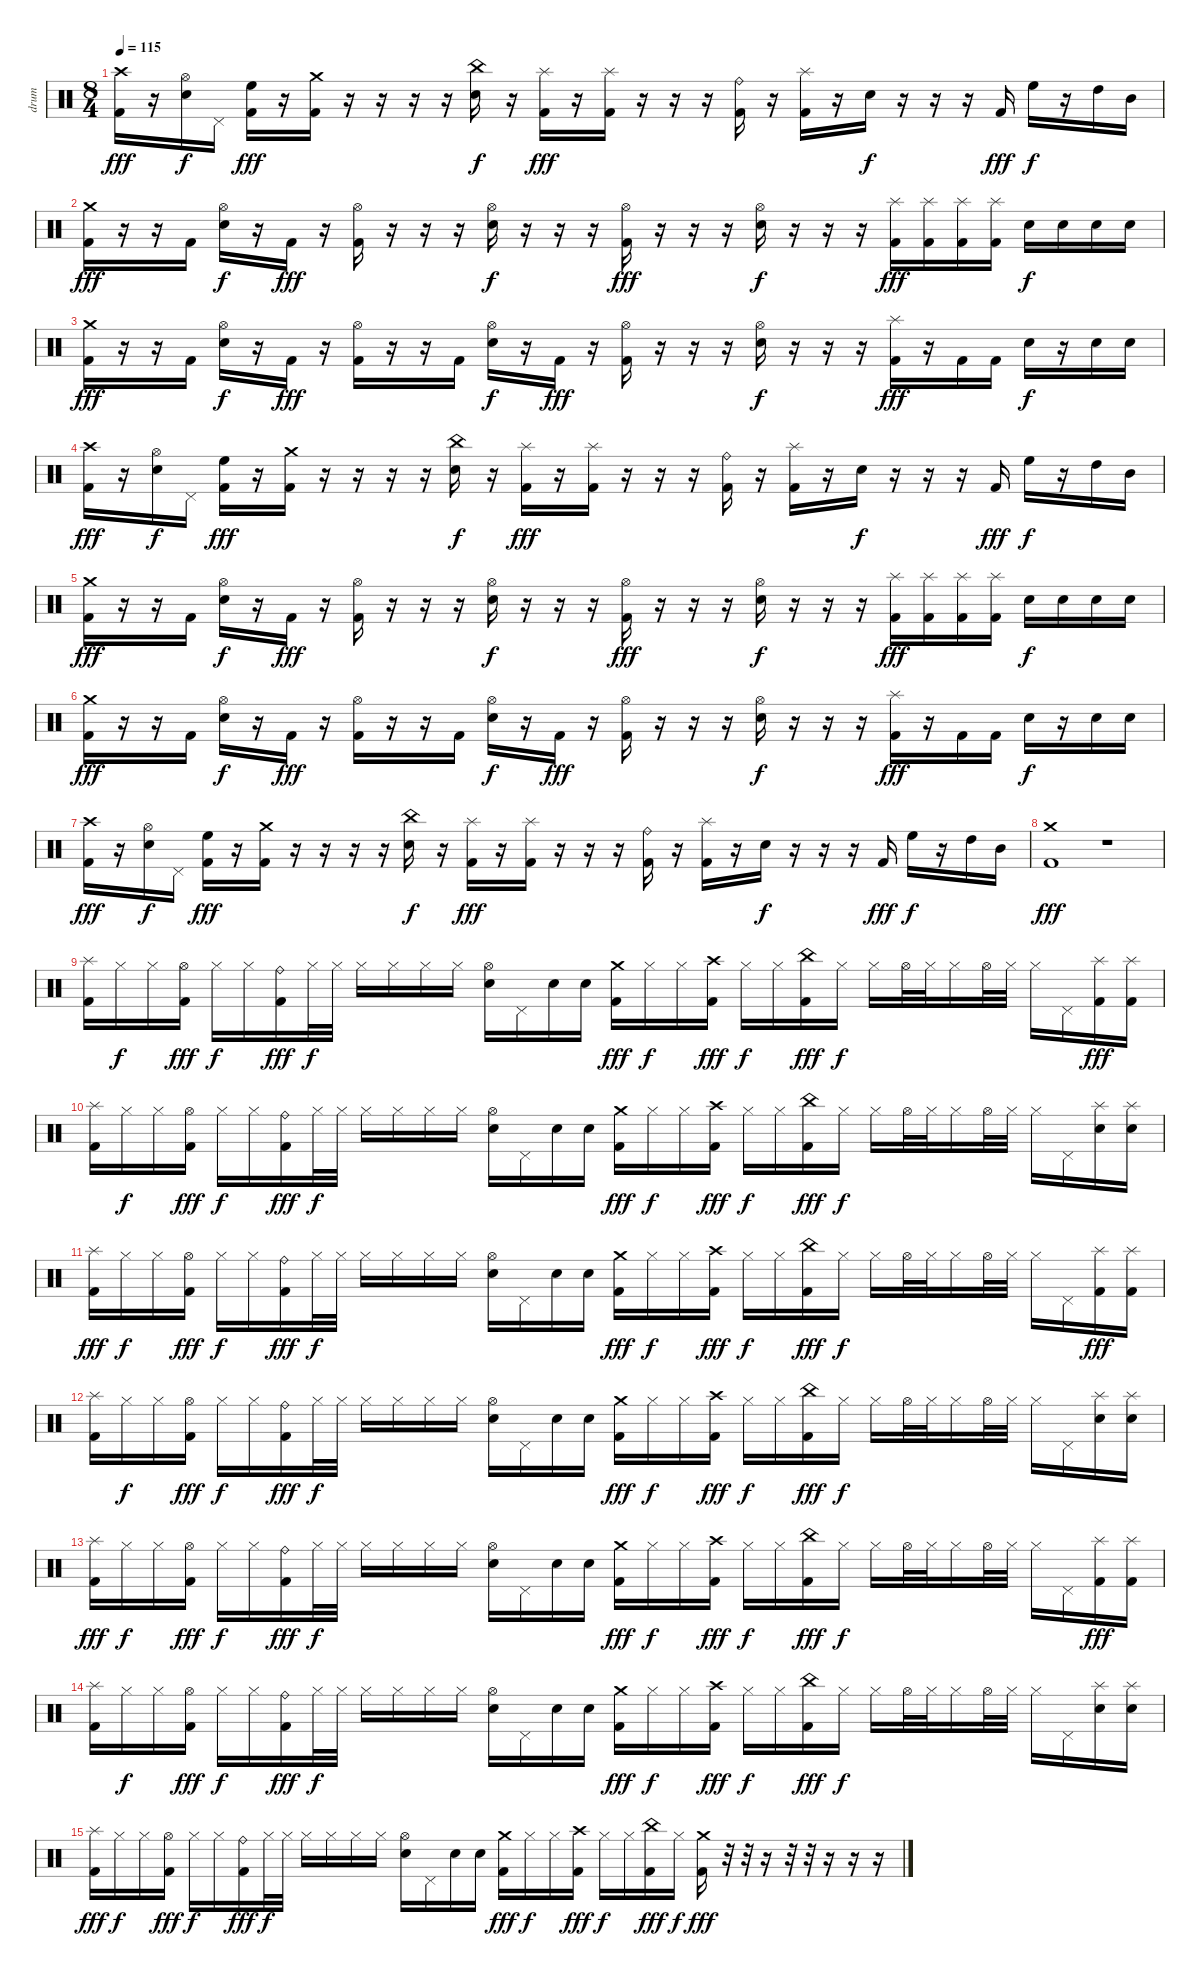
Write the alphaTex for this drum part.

\track ("drum" "drum") {instrument percussion}
\staff {score}
\articulation defaults
\ts (8 4)
\tempo 115
\clef neutral
\ks c
("Crash high (hit)" "Kick (hit) 2").16{dy fff} r.16 ("Hi-Hat (open)" "Electric Snare (hit)").16{dy f} "Pedal Hi-Hat (hit)".16 ("High Floor Tom (hit)" "Kick (hit) 2").16{dy fff} r.16 ("Crash medium (hit)" "Kick (hit) 2").16 r.16 r.16 r.16 r.16 ("China (hit)" "Electric Snare (hit)").16{dy f} r.16 ("Splash (hit)" "Kick (hit) 2").16{dy fff} r.16 ("Splash (hit)" "Kick (hit) 2").16 r.16 r.16 r.16 ("Ride (bell)" "Kick (hit) 2").16 r.16 ("Splash (hit)" "Kick (hit) 2").16 r.16 "Electric Snare (hit)".16{dy f} r.16 r.16 r.16 "Kick (hit) 2".16{dy fff} "High Floor Tom (hit)".16{dy f} r.16 "High Tom (hit)".16 "Mid Tom (hit)".16 |
("Crash medium (hit)" "Kick (hit) 2").16{dy fff} r.16 r.16 "Kick (hit) 2".16 ("Hi-Hat (open)" "Electric Snare (hit)").16{dy f} r.16 "Kick (hit) 2".16{dy fff} r.16 ("Hi-Hat (open)" "Kick (hit) 2").16 r.16 r.16 r.16 ("Hi-Hat (open)" "Electric Snare (hit)").16{dy f} r.16 r.16 r.16 ("Hi-Hat (open)" "Kick (hit) 2").16{dy fff} r.16 r.16 r.16 ("Hi-Hat (open)" "Electric Snare (hit)").16{dy f} r.16 r.16 r.16 ("Splash (hit)" "Kick (hit) 2").16{dy fff} ("Splash (hit)" "Kick (hit) 2").16 ("Splash (hit)" "Kick (hit) 2").16 ("Splash (hit)" "Kick (hit) 2").16 "Electric Snare (hit)".16{dy f} "Electric Snare (hit)".16 "Electric Snare (hit)".16 "Electric Snare (hit)".16 |
("Crash medium (hit)" "Kick (hit) 2").16{dy fff} r.16 r.16 "Kick (hit) 2".16 ("Hi-Hat (open)" "Electric Snare (hit)").16{dy f} r.16 "Kick (hit) 2".16{dy fff} r.16 ("Hi-Hat (open)" "Kick (hit) 2").16 r.16 r.16 "Kick (hit) 2".16 ("Hi-Hat (open)" "Electric Snare (hit)").16{dy f} r.16 "Kick (hit) 2".16{dy fff} r.16 ("Hi-Hat (open)" "Kick (hit) 2").16 r.16 r.16 r.16 ("Hi-Hat (open)" "Electric Snare (hit)").16{dy f} r.16 r.16 r.16 ("Splash (hit)" "Kick (hit) 2").16{dy fff} r.16 "Kick (hit) 2".16 "Kick (hit) 2".16 "Electric Snare (hit)".16{dy f} r.16 "Electric Snare (hit)".16 "Electric Snare (hit)".16 |
("Crash high (hit)" "Kick (hit) 2").16{dy fff} r.16 ("Hi-Hat (open)" "Electric Snare (hit)").16{dy f} "Pedal Hi-Hat (hit)".16 ("High Floor Tom (hit)" "Kick (hit) 2").16{dy fff} r.16 ("Crash medium (hit)" "Kick (hit) 2").16 r.16 r.16 r.16 r.16 ("China (hit)" "Electric Snare (hit)").16{dy f} r.16 ("Splash (hit)" "Kick (hit) 2").16{dy fff} r.16 ("Splash (hit)" "Kick (hit) 2").16 r.16 r.16 r.16 ("Ride (bell)" "Kick (hit) 2").16 r.16 ("Splash (hit)" "Kick (hit) 2").16 r.16 "Electric Snare (hit)".16{dy f} r.16 r.16 r.16 "Kick (hit) 2".16{dy fff} "High Floor Tom (hit)".16{dy f} r.16 "High Tom (hit)".16 "Mid Tom (hit)".16 |
("Crash medium (hit)" "Kick (hit) 2").16{dy fff} r.16 r.16 "Kick (hit) 2".16 ("Hi-Hat (open)" "Electric Snare (hit)").16{dy f} r.16 "Kick (hit) 2".16{dy fff} r.16 ("Hi-Hat (open)" "Kick (hit) 2").16 r.16 r.16 r.16 ("Hi-Hat (open)" "Electric Snare (hit)").16{dy f} r.16 r.16 r.16 ("Hi-Hat (open)" "Kick (hit) 2").16{dy fff} r.16 r.16 r.16 ("Hi-Hat (open)" "Electric Snare (hit)").16{dy f} r.16 r.16 r.16 ("Splash (hit)" "Kick (hit) 2").16{dy fff} ("Splash (hit)" "Kick (hit) 2").16 ("Splash (hit)" "Kick (hit) 2").16 ("Splash (hit)" "Kick (hit) 2").16 "Electric Snare (hit)".16{dy f} "Electric Snare (hit)".16 "Electric Snare (hit)".16 "Electric Snare (hit)".16 |
("Crash medium (hit)" "Kick (hit) 2").16{dy fff} r.16 r.16 "Kick (hit) 2".16 ("Hi-Hat (open)" "Electric Snare (hit)").16{dy f} r.16 "Kick (hit) 2".16{dy fff} r.16 ("Hi-Hat (open)" "Kick (hit) 2").16 r.16 r.16 "Kick (hit) 2".16 ("Hi-Hat (open)" "Electric Snare (hit)").16{dy f} r.16 "Kick (hit) 2".16{dy fff} r.16 ("Hi-Hat (open)" "Kick (hit) 2").16 r.16 r.16 r.16 ("Hi-Hat (open)" "Electric Snare (hit)").16{dy f} r.16 r.16 r.16 ("Splash (hit)" "Kick (hit) 2").16{dy fff} r.16 "Kick (hit) 2".16 "Kick (hit) 2".16 "Electric Snare (hit)".16{dy f} r.16 "Electric Snare (hit)".16 "Electric Snare (hit)".16 |
("Crash high (hit)" "Kick (hit) 2").16{dy fff} r.16 ("Hi-Hat (open)" "Electric Snare (hit)").16{dy f} "Pedal Hi-Hat (hit)".16 ("High Floor Tom (hit)" "Kick (hit) 2").16{dy fff} r.16 ("Crash medium (hit)" "Kick (hit) 2").16 r.16 r.16 r.16 r.16 ("China (hit)" "Electric Snare (hit)").16{dy f} r.16 ("Splash (hit)" "Kick (hit) 2").16{dy fff} r.16 ("Splash (hit)" "Kick (hit) 2").16 r.16 r.16 r.16 ("Ride (bell)" "Kick (hit) 2").16 r.16 ("Splash (hit)" "Kick (hit) 2").16 r.16 "Electric Snare (hit)".16{dy f} r.16 r.16 r.16 "Kick (hit) 2".16{dy fff} "High Floor Tom (hit)".16{dy f} r.16 "High Tom (hit)".16 "Mid Tom (hit)".16 |
("Crash medium (hit)" "Kick (hit) 2").1{dy fff} r.1 |
("Splash (hit)" "Kick (hit) 2").16 "Hi-Hat (closed)".16{dy f} "Hi-Hat (closed)".16 ("Hi-Hat (open)" "Kick (hit) 2").16{dy fff} "Hi-Hat (closed)".16{dy f} "Hi-Hat (closed)".16 ("Ride (bell)" "Kick (hit) 2").16{dy fff} "Hi-Hat (closed)".32{dy f} "Hi-Hat (closed)".32 "Hi-Hat (closed)".16 "Hi-Hat (closed)".16 "Hi-Hat (closed)".16 "Hi-Hat (closed)".16 ("Hi-Hat (open)" "Electric Snare (hit)").16 "Pedal Hi-Hat (hit)".16 "Electric Snare (hit)".16 "Electric Snare (hit)".16 ("Crash medium (hit)" "Kick (hit) 2").16{dy fff} "Hi-Hat (closed)".16{dy f} "Hi-Hat (closed)".16 ("Crash high (hit)" "Kick (hit) 2").16{dy fff} "Hi-Hat (closed)".16{dy f} "Hi-Hat (closed)".16 ("China (hit)" "Kick (hit) 2").16{dy fff} "Hi-Hat (closed)".16{dy f} "Hi-Hat (closed)".16 "Hi-Hat (open)".32 "Hi-Hat (closed)".32 "Hi-Hat (closed)".16 "Hi-Hat (open)".32 "Hi-Hat (closed)".32 "Hi-Hat (closed)".16 "Pedal Hi-Hat (hit)".16 ("Splash (hit)" "Kick (hit) 2").16{dy fff} ("Splash (hit)" "Kick (hit) 2").16 |
("Splash (hit)" "Kick (hit) 2").16 "Hi-Hat (closed)".16{dy f} "Hi-Hat (closed)".16 ("Hi-Hat (open)" "Kick (hit) 2").16{dy fff} "Hi-Hat (closed)".16{dy f} "Hi-Hat (closed)".16 ("Ride (bell)" "Kick (hit) 2").16{dy fff} "Hi-Hat (closed)".32{dy f} "Hi-Hat (closed)".32 "Hi-Hat (closed)".16 "Hi-Hat (closed)".16 "Hi-Hat (closed)".16 "Hi-Hat (closed)".16 ("Hi-Hat (open)" "Electric Snare (hit)").16 "Pedal Hi-Hat (hit)".16 "Electric Snare (hit)".16 "Electric Snare (hit)".16 ("Crash medium (hit)" "Kick (hit) 2").16{dy fff} "Hi-Hat (closed)".16{dy f} "Hi-Hat (closed)".16 ("Crash high (hit)" "Kick (hit) 2").16{dy fff} "Hi-Hat (closed)".16{dy f} "Hi-Hat (closed)".16 ("China (hit)" "Kick (hit) 2").16{dy fff} "Hi-Hat (closed)".16{dy f} "Hi-Hat (closed)".16 "Hi-Hat (open)".32 "Hi-Hat (closed)".32 "Hi-Hat (closed)".16 "Hi-Hat (open)".32 "Hi-Hat (closed)".32 "Hi-Hat (closed)".16 "Pedal Hi-Hat (hit)".16 ("Splash (hit)" "Electric Snare (hit)").16 ("Splash (hit)" "Electric Snare (hit)").16 |
("Splash (hit)" "Kick (hit) 2").16{dy fff} "Hi-Hat (closed)".16{dy f} "Hi-Hat (closed)".16 ("Hi-Hat (open)" "Kick (hit) 2").16{dy fff} "Hi-Hat (closed)".16{dy f} "Hi-Hat (closed)".16 ("Ride (bell)" "Kick (hit) 2").16{dy fff} "Hi-Hat (closed)".32{dy f} "Hi-Hat (closed)".32 "Hi-Hat (closed)".16 "Hi-Hat (closed)".16 "Hi-Hat (closed)".16 "Hi-Hat (closed)".16 ("Hi-Hat (open)" "Electric Snare (hit)").16 "Pedal Hi-Hat (hit)".16 "Electric Snare (hit)".16 "Electric Snare (hit)".16 ("Crash medium (hit)" "Kick (hit) 2").16{dy fff} "Hi-Hat (closed)".16{dy f} "Hi-Hat (closed)".16 ("Crash high (hit)" "Kick (hit) 2").16{dy fff} "Hi-Hat (closed)".16{dy f} "Hi-Hat (closed)".16 ("China (hit)" "Kick (hit) 2").16{dy fff} "Hi-Hat (closed)".16{dy f} "Hi-Hat (closed)".16 "Hi-Hat (open)".32 "Hi-Hat (closed)".32 "Hi-Hat (closed)".16 "Hi-Hat (open)".32 "Hi-Hat (closed)".32 "Hi-Hat (closed)".16 "Pedal Hi-Hat (hit)".16 ("Splash (hit)" "Kick (hit) 2").16{dy fff} ("Splash (hit)" "Kick (hit) 2").16 |
("Splash (hit)" "Kick (hit) 2").16 "Hi-Hat (closed)".16{dy f} "Hi-Hat (closed)".16 ("Hi-Hat (open)" "Kick (hit) 2").16{dy fff} "Hi-Hat (closed)".16{dy f} "Hi-Hat (closed)".16 ("Ride (bell)" "Kick (hit) 2").16{dy fff} "Hi-Hat (closed)".32{dy f} "Hi-Hat (closed)".32 "Hi-Hat (closed)".16 "Hi-Hat (closed)".16 "Hi-Hat (closed)".16 "Hi-Hat (closed)".16 ("Hi-Hat (open)" "Electric Snare (hit)").16 "Pedal Hi-Hat (hit)".16 "Electric Snare (hit)".16 "Electric Snare (hit)".16 ("Crash medium (hit)" "Kick (hit) 2").16{dy fff} "Hi-Hat (closed)".16{dy f} "Hi-Hat (closed)".16 ("Crash high (hit)" "Kick (hit) 2").16{dy fff} "Hi-Hat (closed)".16{dy f} "Hi-Hat (closed)".16 ("China (hit)" "Kick (hit) 2").16{dy fff} "Hi-Hat (closed)".16{dy f} "Hi-Hat (closed)".16 "Hi-Hat (open)".32 "Hi-Hat (closed)".32 "Hi-Hat (closed)".16 "Hi-Hat (open)".32 "Hi-Hat (closed)".32 "Hi-Hat (closed)".16 "Pedal Hi-Hat (hit)".16 ("Splash (hit)" "Electric Snare (hit)").16 ("Splash (hit)" "Electric Snare (hit)").16 |
("Splash (hit)" "Kick (hit) 2").16{dy fff} "Hi-Hat (closed)".16{dy f} "Hi-Hat (closed)".16 ("Hi-Hat (open)" "Kick (hit) 2").16{dy fff} "Hi-Hat (closed)".16{dy f} "Hi-Hat (closed)".16 ("Ride (bell)" "Kick (hit) 2").16{dy fff} "Hi-Hat (closed)".32{dy f} "Hi-Hat (closed)".32 "Hi-Hat (closed)".16 "Hi-Hat (closed)".16 "Hi-Hat (closed)".16 "Hi-Hat (closed)".16 ("Hi-Hat (open)" "Electric Snare (hit)").16 "Pedal Hi-Hat (hit)".16 "Electric Snare (hit)".16 "Electric Snare (hit)".16 ("Crash medium (hit)" "Kick (hit) 2").16{dy fff} "Hi-Hat (closed)".16{dy f} "Hi-Hat (closed)".16 ("Crash high (hit)" "Kick (hit) 2").16{dy fff} "Hi-Hat (closed)".16{dy f} "Hi-Hat (closed)".16 ("China (hit)" "Kick (hit) 2").16{dy fff} "Hi-Hat (closed)".16{dy f} "Hi-Hat (closed)".16 "Hi-Hat (open)".32 "Hi-Hat (closed)".32 "Hi-Hat (closed)".16 "Hi-Hat (open)".32 "Hi-Hat (closed)".32 "Hi-Hat (closed)".16 "Pedal Hi-Hat (hit)".16 ("Splash (hit)" "Kick (hit) 2").16{dy fff} ("Splash (hit)" "Kick (hit) 2").16 |
("Splash (hit)" "Kick (hit) 2").16{volume 14} "Hi-Hat (closed)".16{dy f} "Hi-Hat (closed)".16 ("Hi-Hat (open)" "Kick (hit) 2").16{dy fff} "Hi-Hat (closed)".16{dy f} "Hi-Hat (closed)".16 ("Ride (bell)" "Kick (hit) 2").16{dy fff} "Hi-Hat (closed)".32{dy f} "Hi-Hat (closed)".32 "Hi-Hat (closed)".16 "Hi-Hat (closed)".16 "Hi-Hat (closed)".16 "Hi-Hat (closed)".16 ("Hi-Hat (open)" "Electric Snare (hit)").16 "Pedal Hi-Hat (hit)".16 "Electric Snare (hit)".16 "Electric Snare (hit)".16 ("Crash medium (hit)" "Kick (hit) 2").16{dy fff} "Hi-Hat (closed)".16{dy f} "Hi-Hat (closed)".16 ("Crash high (hit)" "Kick (hit) 2").16{dy fff} "Hi-Hat (closed)".16{dy f} "Hi-Hat (closed)".16 ("China (hit)" "Kick (hit) 2").16{dy fff} "Hi-Hat (closed)".16{dy f} "Hi-Hat (closed)".16 "Hi-Hat (open)".32 "Hi-Hat (closed)".32 "Hi-Hat (closed)".16 "Hi-Hat (open)".32 "Hi-Hat (closed)".32 "Hi-Hat (closed)".16 "Pedal Hi-Hat (hit)".16 ("Splash (hit)" "Electric Snare (hit)").16 ("Splash (hit)" "Electric Snare (hit)").16 |
("Splash (hit)" "Kick (hit) 2").16{dy fff} "Hi-Hat (closed)".16{dy f} "Hi-Hat (closed)".16 ("Hi-Hat (open)" "Kick (hit) 2").16{dy fff} "Hi-Hat (closed)".16{dy f} "Hi-Hat (closed)".16 ("Ride (bell)" "Kick (hit) 2").16{dy fff} "Hi-Hat (closed)".32{dy f} "Hi-Hat (closed)".32 "Hi-Hat (closed)".16 "Hi-Hat (closed)".16 "Hi-Hat (closed)".16 "Hi-Hat (closed)".16 ("Hi-Hat (open)" "Electric Snare (hit)").16 "Pedal Hi-Hat (hit)".16 "Electric Snare (hit)".16 "Electric Snare (hit)".16 ("Crash medium (hit)" "Kick (hit) 2").16{dy fff} "Hi-Hat (closed)".16{dy f} "Hi-Hat (closed)".16 ("Crash high (hit)" "Kick (hit) 2").16{dy fff} "Hi-Hat (closed)".16{dy f} "Hi-Hat (closed)".16 ("China (hit)" "Kick (hit) 2").16{dy fff} "Hi-Hat (closed)".16{dy f} ("Crash medium (hit)" "Kick (hit) 2").16{dy fff} r.32 r.32 r.16 r.32 r.32 r.16 r.16 r.16
